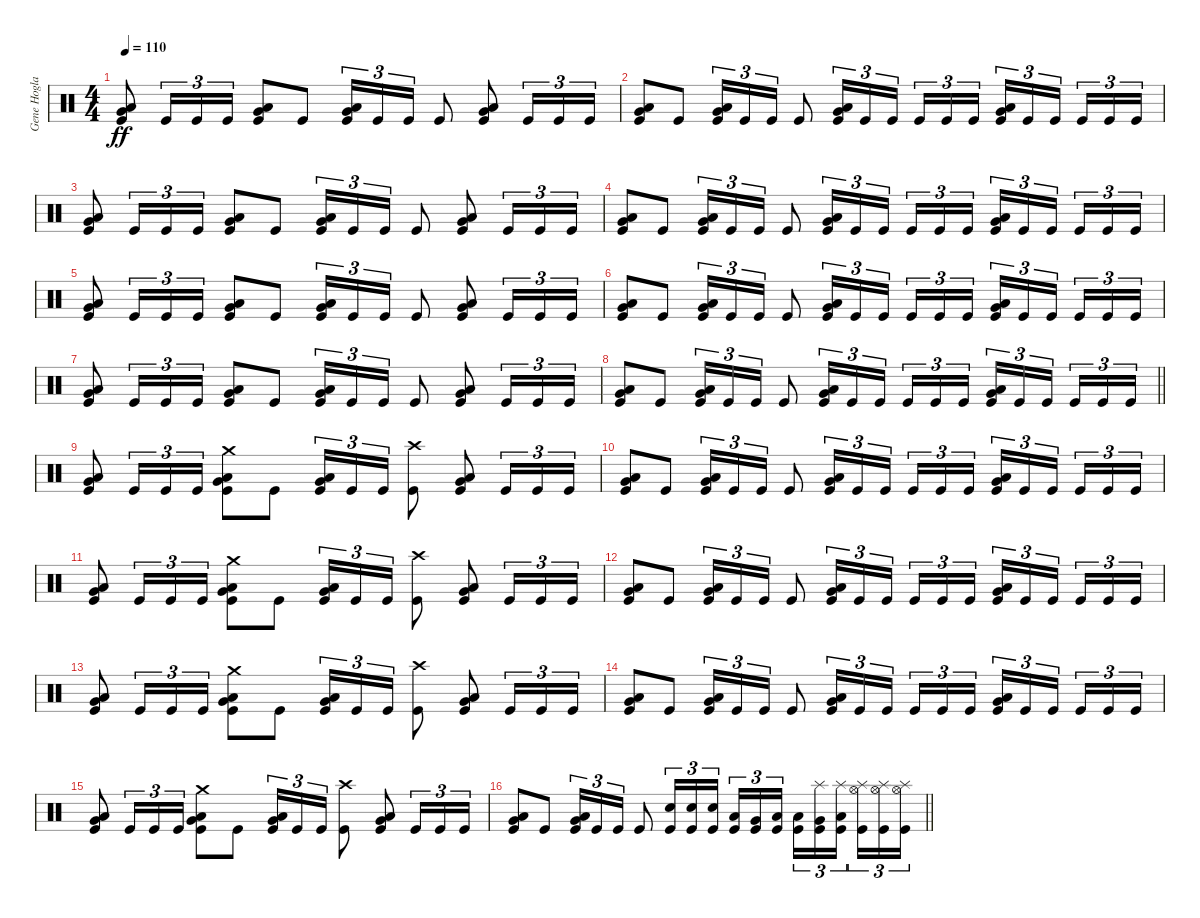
\track ("Gene Hoglan" "Gene Hogla") {instrument percussion}
\staff {score}
\articulation defaults
\ts (4 4)
\section ("" "")
\tempo 110
\clef neutral
\ks c
("Very Low Tom (hit)" "Low Tom (hit)" "Kick (hit)").8{dy ff} "Kick (hit)".16{tu (3 2)} "Kick (hit)".16{tu (3 2)} "Kick (hit)".16{tu (3 2)} ("Very Low Tom (hit)" "Low Tom (hit)" "Kick (hit)").8 "Kick (hit)".8 ("Very Low Tom (hit)" "Low Tom (hit)" "Kick (hit)").16{tu (3 2)} "Kick (hit)".16{tu (3 2)} "Kick (hit)".16{tu (3 2)} "Kick (hit)".8 ("Very Low Tom (hit)" "Low Tom (hit)" "Kick (hit)").8 "Kick (hit)".16{tu (3 2)} "Kick (hit)".16{tu (3 2)} "Kick (hit)".16{tu (3 2)} |
("Very Low Tom (hit)" "Low Tom (hit)" "Kick (hit)").8 "Kick (hit)".8 ("Very Low Tom (hit)" "Low Tom (hit)" "Kick (hit)").16{tu (3 2)} "Kick (hit)".16{tu (3 2)} "Kick (hit)".16{tu (3 2)} "Kick (hit)".8 ("Very Low Tom (hit)" "Low Tom (hit)" "Kick (hit)").16{tu (3 2)} "Kick (hit)".16{tu (3 2)} "Kick (hit)".16{tu (3 2) beam splitsecondary} "Kick (hit)".16{tu (3 2)} "Kick (hit)".16{tu (3 2)} "Kick (hit)".16{tu (3 2)} ("Very Low Tom (hit)" "Low Tom (hit)" "Kick (hit)").16{tu (3 2)} "Kick (hit)".16{tu (3 2)} "Kick (hit)".16{tu (3 2) beam splitsecondary} "Kick (hit)".16{tu (3 2)} "Kick (hit)".16{tu (3 2)} "Kick (hit)".16{tu (3 2)} |
("Very Low Tom (hit)" "Low Tom (hit)" "Kick (hit)").8 "Kick (hit)".16{tu (3 2)} "Kick (hit)".16{tu (3 2)} "Kick (hit)".16{tu (3 2)} ("Very Low Tom (hit)" "Low Tom (hit)" "Kick (hit)").8 "Kick (hit)".8 ("Very Low Tom (hit)" "Low Tom (hit)" "Kick (hit)").16{tu (3 2)} "Kick (hit)".16{tu (3 2)} "Kick (hit)".16{tu (3 2)} "Kick (hit)".8 ("Very Low Tom (hit)" "Low Tom (hit)" "Kick (hit)").8 "Kick (hit)".16{tu (3 2)} "Kick (hit)".16{tu (3 2)} "Kick (hit)".16{tu (3 2)} |
("Very Low Tom (hit)" "Low Tom (hit)" "Kick (hit)").8 "Kick (hit)".8 ("Very Low Tom (hit)" "Low Tom (hit)" "Kick (hit)").16{tu (3 2)} "Kick (hit)".16{tu (3 2)} "Kick (hit)".16{tu (3 2)} "Kick (hit)".8 ("Very Low Tom (hit)" "Low Tom (hit)" "Kick (hit)").16{tu (3 2)} "Kick (hit)".16{tu (3 2)} "Kick (hit)".16{tu (3 2) beam splitsecondary} "Kick (hit)".16{tu (3 2)} "Kick (hit)".16{tu (3 2)} "Kick (hit)".16{tu (3 2)} ("Very Low Tom (hit)" "Low Tom (hit)" "Kick (hit)").16{tu (3 2)} "Kick (hit)".16{tu (3 2)} "Kick (hit)".16{tu (3 2) beam splitsecondary} "Kick (hit)".16{tu (3 2)} "Kick (hit)".16{tu (3 2)} "Kick (hit)".16{tu (3 2)} |
("Very Low Tom (hit)" "Low Tom (hit)" "Kick (hit)").8 "Kick (hit)".16{tu (3 2)} "Kick (hit)".16{tu (3 2)} "Kick (hit)".16{tu (3 2)} ("Very Low Tom (hit)" "Low Tom (hit)" "Kick (hit)").8 "Kick (hit)".8 ("Very Low Tom (hit)" "Low Tom (hit)" "Kick (hit)").16{tu (3 2)} "Kick (hit)".16{tu (3 2)} "Kick (hit)".16{tu (3 2)} "Kick (hit)".8 ("Very Low Tom (hit)" "Low Tom (hit)" "Kick (hit)").8 "Kick (hit)".16{tu (3 2)} "Kick (hit)".16{tu (3 2)} "Kick (hit)".16{tu (3 2)} |
("Very Low Tom (hit)" "Low Tom (hit)" "Kick (hit)").8 "Kick (hit)".8 ("Very Low Tom (hit)" "Low Tom (hit)" "Kick (hit)").16{tu (3 2)} "Kick (hit)".16{tu (3 2)} "Kick (hit)".16{tu (3 2)} "Kick (hit)".8 ("Very Low Tom (hit)" "Low Tom (hit)" "Kick (hit)").16{tu (3 2)} "Kick (hit)".16{tu (3 2)} "Kick (hit)".16{tu (3 2) beam splitsecondary} "Kick (hit)".16{tu (3 2)} "Kick (hit)".16{tu (3 2)} "Kick (hit)".16{tu (3 2)} ("Very Low Tom (hit)" "Low Tom (hit)" "Kick (hit)").16{tu (3 2)} "Kick (hit)".16{tu (3 2)} "Kick (hit)".16{tu (3 2) beam splitsecondary} "Kick (hit)".16{tu (3 2)} "Kick (hit)".16{tu (3 2)} "Kick (hit)".16{tu (3 2)} |
("Very Low Tom (hit)" "Low Tom (hit)" "Kick (hit)").8 "Kick (hit)".16{tu (3 2)} "Kick (hit)".16{tu (3 2)} "Kick (hit)".16{tu (3 2)} ("Very Low Tom (hit)" "Low Tom (hit)" "Kick (hit)").8 "Kick (hit)".8 ("Very Low Tom (hit)" "Low Tom (hit)" "Kick (hit)").16{tu (3 2)} "Kick (hit)".16{tu (3 2)} "Kick (hit)".16{tu (3 2)} "Kick (hit)".8 ("Very Low Tom (hit)" "Low Tom (hit)" "Kick (hit)").8 "Kick (hit)".16{tu (3 2)} "Kick (hit)".16{tu (3 2)} "Kick (hit)".16{tu (3 2)} |
\barLineRight lightlight
("Very Low Tom (hit)" "Low Tom (hit)" "Kick (hit)").8 "Kick (hit)".8 ("Very Low Tom (hit)" "Low Tom (hit)" "Kick (hit)").16{tu (3 2)} "Kick (hit)".16{tu (3 2)} "Kick (hit)".16{tu (3 2)} "Kick (hit)".8 ("Very Low Tom (hit)" "Low Tom (hit)" "Kick (hit)").16{tu (3 2)} "Kick (hit)".16{tu (3 2)} "Kick (hit)".16{tu (3 2) beam splitsecondary} "Kick (hit)".16{tu (3 2)} "Kick (hit)".16{tu (3 2)} "Kick (hit)".16{tu (3 2)} ("Very Low Tom (hit)" "Low Tom (hit)" "Kick (hit)").16{tu (3 2)} "Kick (hit)".16{tu (3 2)} "Kick (hit)".16{tu (3 2) beam splitsecondary} "Kick (hit)".16{tu (3 2)} "Kick (hit)".16{tu (3 2)} "Kick (hit)".16{tu (3 2)} |
\section ("" "")
("Very Low Tom (hit)" "Low Tom (hit)" "Kick (hit)").8 "Kick (hit)".16{tu (3 2)} "Kick (hit)".16{tu (3 2)} "Kick (hit)".16{tu (3 2)} ("Crash medium (hit)" "Very Low Tom (hit)" "Low Tom (hit)" "Kick (hit)").8 "Kick (hit)".8 ("Very Low Tom (hit)" "Low Tom (hit)" "Kick (hit)").16{tu (3 2)} "Kick (hit)".16{tu (3 2)} "Kick (hit)".16{tu (3 2)} ("Crash high (hit)" "Kick (hit)").8 ("Very Low Tom (hit)" "Low Tom (hit)" "Kick (hit)").8 "Kick (hit)".16{tu (3 2)} "Kick (hit)".16{tu (3 2)} "Kick (hit)".16{tu (3 2)} |
("Very Low Tom (hit)" "Low Tom (hit)" "Kick (hit)").8 "Kick (hit)".8 ("Very Low Tom (hit)" "Low Tom (hit)" "Kick (hit)").16{tu (3 2)} "Kick (hit)".16{tu (3 2)} "Kick (hit)".16{tu (3 2)} "Kick (hit)".8 ("Very Low Tom (hit)" "Low Tom (hit)" "Kick (hit)").16{tu (3 2)} "Kick (hit)".16{tu (3 2)} "Kick (hit)".16{tu (3 2) beam splitsecondary} "Kick (hit)".16{tu (3 2)} "Kick (hit)".16{tu (3 2)} "Kick (hit)".16{tu (3 2)} ("Very Low Tom (hit)" "Low Tom (hit)" "Kick (hit)").16{tu (3 2)} "Kick (hit)".16{tu (3 2)} "Kick (hit)".16{tu (3 2) beam splitsecondary} "Kick (hit)".16{tu (3 2)} "Kick (hit)".16{tu (3 2)} "Kick (hit)".16{tu (3 2)} |
("Very Low Tom (hit)" "Low Tom (hit)" "Kick (hit)").8 "Kick (hit)".16{tu (3 2)} "Kick (hit)".16{tu (3 2)} "Kick (hit)".16{tu (3 2)} ("Crash medium (hit)" "Very Low Tom (hit)" "Low Tom (hit)" "Kick (hit)").8 "Kick (hit)".8 ("Very Low Tom (hit)" "Low Tom (hit)" "Kick (hit)").16{tu (3 2)} "Kick (hit)".16{tu (3 2)} "Kick (hit)".16{tu (3 2)} ("Crash high (hit)" "Kick (hit)").8 ("Very Low Tom (hit)" "Low Tom (hit)" "Kick (hit)").8 "Kick (hit)".16{tu (3 2)} "Kick (hit)".16{tu (3 2)} "Kick (hit)".16{tu (3 2)} |
("Very Low Tom (hit)" "Low Tom (hit)" "Kick (hit)").8 "Kick (hit)".8 ("Very Low Tom (hit)" "Low Tom (hit)" "Kick (hit)").16{tu (3 2)} "Kick (hit)".16{tu (3 2)} "Kick (hit)".16{tu (3 2)} "Kick (hit)".8 ("Very Low Tom (hit)" "Low Tom (hit)" "Kick (hit)").16{tu (3 2)} "Kick (hit)".16{tu (3 2)} "Kick (hit)".16{tu (3 2) beam splitsecondary} "Kick (hit)".16{tu (3 2)} "Kick (hit)".16{tu (3 2)} "Kick (hit)".16{tu (3 2)} ("Very Low Tom (hit)" "Low Tom (hit)" "Kick (hit)").16{tu (3 2)} "Kick (hit)".16{tu (3 2)} "Kick (hit)".16{tu (3 2) beam splitsecondary} "Kick (hit)".16{tu (3 2)} "Kick (hit)".16{tu (3 2)} "Kick (hit)".16{tu (3 2)} |
("Very Low Tom (hit)" "Low Tom (hit)" "Kick (hit)").8 "Kick (hit)".16{tu (3 2)} "Kick (hit)".16{tu (3 2)} "Kick (hit)".16{tu (3 2)} ("Crash medium (hit)" "Very Low Tom (hit)" "Low Tom (hit)" "Kick (hit)").8 "Kick (hit)".8 ("Very Low Tom (hit)" "Low Tom (hit)" "Kick (hit)").16{tu (3 2)} "Kick (hit)".16{tu (3 2)} "Kick (hit)".16{tu (3 2)} ("Crash high (hit)" "Kick (hit)").8 ("Very Low Tom (hit)" "Low Tom (hit)" "Kick (hit)").8 "Kick (hit)".16{tu (3 2)} "Kick (hit)".16{tu (3 2)} "Kick (hit)".16{tu (3 2)} |
("Very Low Tom (hit)" "Low Tom (hit)" "Kick (hit)").8 "Kick (hit)".8 ("Very Low Tom (hit)" "Low Tom (hit)" "Kick (hit)").16{tu (3 2)} "Kick (hit)".16{tu (3 2)} "Kick (hit)".16{tu (3 2)} "Kick (hit)".8 ("Very Low Tom (hit)" "Low Tom (hit)" "Kick (hit)").16{tu (3 2)} "Kick (hit)".16{tu (3 2)} "Kick (hit)".16{tu (3 2) beam splitsecondary} "Kick (hit)".16{tu (3 2)} "Kick (hit)".16{tu (3 2)} "Kick (hit)".16{tu (3 2)} ("Very Low Tom (hit)" "Low Tom (hit)" "Kick (hit)").16{tu (3 2)} "Kick (hit)".16{tu (3 2)} "Kick (hit)".16{tu (3 2) beam splitsecondary} "Kick (hit)".16{tu (3 2)} "Kick (hit)".16{tu (3 2)} "Kick (hit)".16{tu (3 2)} |
("Very Low Tom (hit)" "Low Tom (hit)" "Kick (hit)").8 "Kick (hit)".16{tu (3 2)} "Kick (hit)".16{tu (3 2)} "Kick (hit)".16{tu (3 2)} ("Crash medium (hit)" "Very Low Tom (hit)" "Low Tom (hit)" "Kick (hit)").8 "Kick (hit)".8 ("Very Low Tom (hit)" "Low Tom (hit)" "Kick (hit)").16{tu (3 2)} "Kick (hit)".16{tu (3 2)} "Kick (hit)".16{tu (3 2)} ("Crash high (hit)" "Kick (hit)").8 ("Very Low Tom (hit)" "Low Tom (hit)" "Kick (hit)").8 "Kick (hit)".16{tu (3 2)} "Kick (hit)".16{tu (3 2)} "Kick (hit)".16{tu (3 2)} |
\barLineRight lightlight
("Very Low Tom (hit)" "Low Tom (hit)" "Kick (hit)").8 "Kick (hit)".8 ("Very Low Tom (hit)" "Low Tom (hit)" "Kick (hit)").16{tu (3 2)} "Kick (hit)".16{tu (3 2)} "Kick (hit)".16{tu (3 2)} "Kick (hit)".8 ("Electric Snare (hit)" "Kick (hit)").16{tu (3 2)} ("Electric Snare (hit)" "Kick (hit)").16{tu (3 2)} ("Electric Snare (hit)" "Kick (hit)").16{tu (3 2) beam splitsecondary} ("Low Tom (hit)" "Kick (hit)").16{tu (3 2)} ("Very Low Tom (hit)" "Kick (hit)").16{tu (3 2)} ("Low Floor Tom (hit)" "Kick (hit)").16{tu (3 2)} ("Low Floor Tom (hit)" "Kick (hit)").16{tu (3 2)} ("Splash (hit)" "Very Low Tom (hit)" "Kick (hit)").16{tu (3 2)} ("Splash (hit)" "Low Floor Tom (hit)" "Kick (hit)").16{tu (3 2) beam splitsecondary} ("Splash (hit)" "Hi-Hat (open)" "Kick (hit)").16{tu (3 2)} ("Splash (hit)" "Hi-Hat (open)" "Kick (hit)").16{tu (3 2)} ("Splash (hit)" "Hi-Hat (open)" "Kick (hit)").16{tu (3 2)}
